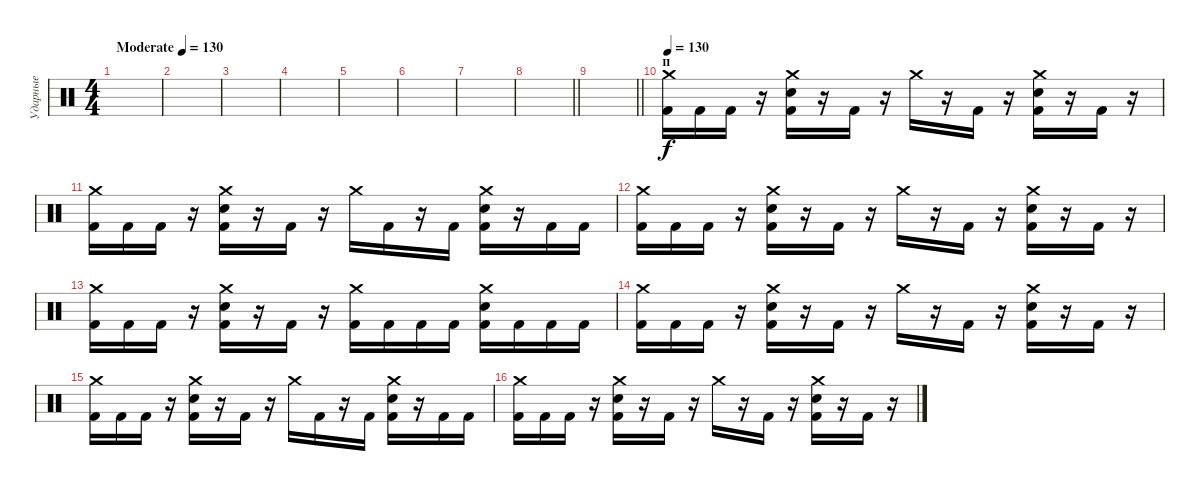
\track ("Ударные" "Ударные") {instrument percussion}
\staff {score}
\articulation defaults
\ts (4 4)
\tempo (130 "Moderate")
\tempo 115
\tempo (130 "Moderate")
\clef neutral
\ks c
|
|
|
|
|
|
|
\barLineRight lightlight
|
\barLineRight lightlight
|
\section ("" "п")
\tempo 130
("Crash medium (hit)" "Kick (hit) 2").16 "Kick (hit) 2".16 "Kick (hit) 2".16 r.16 ("Crash medium (hit)" "Snare (hit) 2" "Kick (hit) 2").16 r.16 "Kick (hit) 2".16 r.16 "Crash medium (hit)".16 r.16 "Kick (hit) 2".16 r.16 ("Crash medium (hit)" "Snare (hit) 2" "Kick (hit) 2").16 r.16 "Kick (hit) 2".16 r.16 |
("Crash medium (hit)" "Kick (hit) 2").16 "Kick (hit) 2".16 "Kick (hit) 2".16 r.16 ("Crash medium (hit)" "Snare (hit) 2" "Kick (hit) 2").16 r.16 "Kick (hit) 2".16 r.16 "Crash medium (hit)".16 "Kick (hit) 2".16 r.16 "Kick (hit) 2".16 ("Crash medium (hit)" "Snare (hit) 2" "Kick (hit) 2").16 r.16 "Kick (hit) 2".16 "Kick (hit) 2".16 |
("Crash medium (hit)" "Kick (hit) 2").16 "Kick (hit) 2".16 "Kick (hit) 2".16 r.16 ("Crash medium (hit)" "Snare (hit) 2" "Kick (hit) 2").16 r.16 "Kick (hit) 2".16 r.16 "Crash medium (hit)".16 r.16 "Kick (hit) 2".16 r.16 ("Crash medium (hit)" "Snare (hit) 2" "Kick (hit) 2").16 r.16 "Kick (hit) 2".16 r.16 |
("Crash medium (hit)" "Kick (hit) 2").16 "Kick (hit) 2".16 "Kick (hit) 2".16 r.16 ("Crash medium (hit)" "Snare (hit) 2" "Kick (hit) 2").16 r.16 "Kick (hit) 2".16 r.16 ("Crash medium (hit)" "Kick (hit) 2").16 "Kick (hit) 2".16 "Kick (hit) 2".16 "Kick (hit) 2".16 ("Crash medium (hit)" "Snare (hit) 2" "Kick (hit) 2").16 "Kick (hit) 2".16 "Kick (hit) 2".16 "Kick (hit) 2".16 |
("Crash medium (hit)" "Kick (hit) 2").16 "Kick (hit) 2".16 "Kick (hit) 2".16 r.16 ("Crash medium (hit)" "Snare (hit) 2" "Kick (hit) 2").16 r.16 "Kick (hit) 2".16 r.16 "Crash medium (hit)".16 r.16 "Kick (hit) 2".16 r.16 ("Crash medium (hit)" "Snare (hit) 2" "Kick (hit) 2").16 r.16 "Kick (hit) 2".16 r.16 |
("Crash medium (hit)" "Kick (hit) 2").16 "Kick (hit) 2".16 "Kick (hit) 2".16 r.16 ("Crash medium (hit)" "Snare (hit) 2" "Kick (hit) 2").16 r.16 "Kick (hit) 2".16 r.16 "Crash medium (hit)".16 "Kick (hit) 2".16 r.16 "Kick (hit) 2".16 ("Crash medium (hit)" "Snare (hit) 2" "Kick (hit) 2").16 r.16 "Kick (hit) 2".16 "Kick (hit) 2".16 |
("Crash medium (hit)" "Kick (hit) 2").16 "Kick (hit) 2".16 "Kick (hit) 2".16 r.16 ("Crash medium (hit)" "Snare (hit) 2" "Kick (hit) 2").16 r.16 "Kick (hit) 2".16 r.16 "Crash medium (hit)".16 r.16 "Kick (hit) 2".16 r.16 ("Crash medium (hit)" "Snare (hit) 2" "Kick (hit) 2").16 r.16 "Kick (hit) 2".16 r.16
